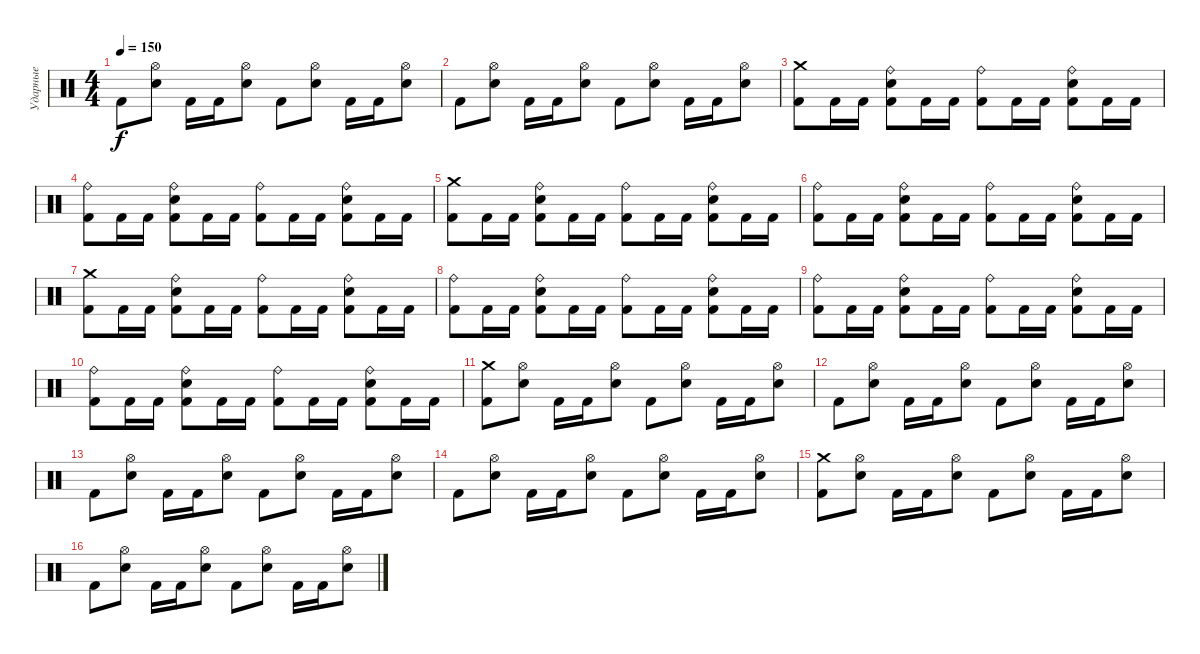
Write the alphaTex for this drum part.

\track ("Ударные" "Ударные") {instrument percussion}
\staff {score}
\articulation defaults
\ts (4 4)
\tempo 150
\clef neutral
\ks c "Kick (hit) 2".8{dy f}
("Hi-Hat (open)" "Electric Snare (hit)").8 "Kick (hit) 2".16 "Kick (hit) 2".16 ("Hi-Hat (open)" "Electric Snare (hit)").8 "Kick (hit) 2".8 ("Hi-Hat (open)" "Electric Snare (hit)").8 "Kick (hit) 2".16 "Kick (hit) 2".16 ("Hi-Hat (open)" "Electric Snare (hit)").8 |
"Kick (hit) 2".8 ("Hi-Hat (open)" "Electric Snare (hit)").8 "Kick (hit) 2".16 "Kick (hit) 2".16 ("Hi-Hat (open)" "Electric Snare (hit)").8 "Kick (hit) 2".8 ("Hi-Hat (open)" "Electric Snare (hit)").8 "Kick (hit) 2".16 "Kick (hit) 2".16 ("Hi-Hat (open)" "Electric Snare (hit)").8 |
("Crash medium (hit)" "Kick (hit) 2").8 "Kick (hit) 2".16 "Kick (hit) 2".16 ("Ride (bell)" "Electric Snare (hit)" "Kick (hit) 2").8 "Kick (hit) 2".16 "Kick (hit) 2".16 ("Ride (bell)" "Kick (hit) 2").8 "Kick (hit) 2".16 "Kick (hit) 2".16 ("Ride (bell)" "Electric Snare (hit)" "Kick (hit) 2").8 "Kick (hit) 2".16 "Kick (hit) 2".16 |
("Ride (bell)" "Kick (hit) 2").8 "Kick (hit) 2".16 "Kick (hit) 2".16 ("Ride (bell)" "Electric Snare (hit)" "Kick (hit) 2").8 "Kick (hit) 2".16 "Kick (hit) 2".16 ("Ride (bell)" "Kick (hit) 2").8 "Kick (hit) 2".16 "Kick (hit) 2".16 ("Ride (bell)" "Electric Snare (hit)" "Kick (hit) 2").8 "Kick (hit) 2".16 "Kick (hit) 2".16 |
("Crash medium (hit)" "Kick (hit) 2").8 "Kick (hit) 2".16 "Kick (hit) 2".16 ("Ride (bell)" "Electric Snare (hit)" "Kick (hit) 2").8 "Kick (hit) 2".16 "Kick (hit) 2".16 ("Ride (bell)" "Kick (hit) 2").8 "Kick (hit) 2".16 "Kick (hit) 2".16 ("Ride (bell)" "Electric Snare (hit)" "Kick (hit) 2").8 "Kick (hit) 2".16 "Kick (hit) 2".16 |
("Ride (bell)" "Kick (hit) 2").8 "Kick (hit) 2".16 "Kick (hit) 2".16 ("Ride (bell)" "Electric Snare (hit)" "Kick (hit) 2").8 "Kick (hit) 2".16 "Kick (hit) 2".16 ("Ride (bell)" "Kick (hit) 2").8 "Kick (hit) 2".16 "Kick (hit) 2".16 ("Ride (bell)" "Electric Snare (hit)" "Kick (hit) 2").8 "Kick (hit) 2".16 "Kick (hit) 2".16 |
("Crash medium (hit)" "Kick (hit) 2").8 "Kick (hit) 2".16 "Kick (hit) 2".16 ("Ride (bell)" "Electric Snare (hit)" "Kick (hit) 2").8 "Kick (hit) 2".16 "Kick (hit) 2".16 ("Ride (bell)" "Kick (hit) 2").8 "Kick (hit) 2".16 "Kick (hit) 2".16 ("Ride (bell)" "Electric Snare (hit)" "Kick (hit) 2").8 "Kick (hit) 2".16 "Kick (hit) 2".16 |
("Ride (bell)" "Kick (hit) 2").8 "Kick (hit) 2".16 "Kick (hit) 2".16 ("Ride (bell)" "Electric Snare (hit)" "Kick (hit) 2").8 "Kick (hit) 2".16 "Kick (hit) 2".16 ("Ride (bell)" "Kick (hit) 2").8 "Kick (hit) 2".16 "Kick (hit) 2".16 ("Ride (bell)" "Electric Snare (hit)" "Kick (hit) 2").8 "Kick (hit) 2".16 "Kick (hit) 2".16 |
("Ride (bell)" "Kick (hit) 2").8 "Kick (hit) 2".16 "Kick (hit) 2".16 ("Ride (bell)" "Electric Snare (hit)" "Kick (hit) 2").8 "Kick (hit) 2".16 "Kick (hit) 2".16 ("Ride (bell)" "Kick (hit) 2").8 "Kick (hit) 2".16 "Kick (hit) 2".16 ("Ride (bell)" "Electric Snare (hit)" "Kick (hit) 2").8 "Kick (hit) 2".16 "Kick (hit) 2".16 |
("Ride (bell)" "Kick (hit) 2").8 "Kick (hit) 2".16 "Kick (hit) 2".16 ("Ride (bell)" "Electric Snare (hit)" "Kick (hit) 2").8 "Kick (hit) 2".16 "Kick (hit) 2".16 ("Ride (bell)" "Kick (hit) 2").8 "Kick (hit) 2".16 "Kick (hit) 2".16 ("Ride (bell)" "Electric Snare (hit)" "Kick (hit) 2").8 "Kick (hit) 2".16 "Kick (hit) 2".16 |
("Crash medium (hit)" "Kick (hit) 2").8 ("Hi-Hat (open)" "Electric Snare (hit)").8 "Kick (hit) 2".16 "Kick (hit) 2".16 ("Hi-Hat (open)" "Electric Snare (hit)").8 "Kick (hit) 2".8 ("Hi-Hat (open)" "Electric Snare (hit)").8 "Kick (hit) 2".16 "Kick (hit) 2".16 ("Hi-Hat (open)" "Electric Snare (hit)").8 |
"Kick (hit) 2".8 ("Hi-Hat (open)" "Electric Snare (hit)").8 "Kick (hit) 2".16 "Kick (hit) 2".16 ("Hi-Hat (open)" "Electric Snare (hit)").8 "Kick (hit) 2".8 ("Hi-Hat (open)" "Electric Snare (hit)").8 "Kick (hit) 2".16 "Kick (hit) 2".16 ("Hi-Hat (open)" "Electric Snare (hit)").8 |
"Kick (hit) 2".8 ("Hi-Hat (open)" "Electric Snare (hit)").8 "Kick (hit) 2".16 "Kick (hit) 2".16 ("Hi-Hat (open)" "Electric Snare (hit)").8 "Kick (hit) 2".8 ("Hi-Hat (open)" "Electric Snare (hit)").8 "Kick (hit) 2".16 "Kick (hit) 2".16 ("Hi-Hat (open)" "Electric Snare (hit)").8 |
"Kick (hit) 2".8 ("Hi-Hat (open)" "Electric Snare (hit)").8 "Kick (hit) 2".16 "Kick (hit) 2".16 ("Hi-Hat (open)" "Electric Snare (hit)").8 "Kick (hit) 2".8 ("Hi-Hat (open)" "Electric Snare (hit)").8 "Kick (hit) 2".16 "Kick (hit) 2".16 ("Hi-Hat (open)" "Electric Snare (hit)").8 |
("Crash medium (hit)" "Kick (hit) 2").8 ("Hi-Hat (open)" "Electric Snare (hit)").8 "Kick (hit) 2".16 "Kick (hit) 2".16 ("Hi-Hat (open)" "Electric Snare (hit)").8 "Kick (hit) 2".8 ("Hi-Hat (open)" "Electric Snare (hit)").8 "Kick (hit) 2".16 "Kick (hit) 2".16 ("Hi-Hat (open)" "Electric Snare (hit)").8 |
"Kick (hit) 2".8 ("Hi-Hat (open)" "Electric Snare (hit)").8 "Kick (hit) 2".16 "Kick (hit) 2".16 ("Hi-Hat (open)" "Electric Snare (hit)").8 "Kick (hit) 2".8 ("Hi-Hat (open)" "Electric Snare (hit)").8 "Kick (hit) 2".16 "Kick (hit) 2".16 ("Hi-Hat (open)" "Electric Snare (hit)").8
